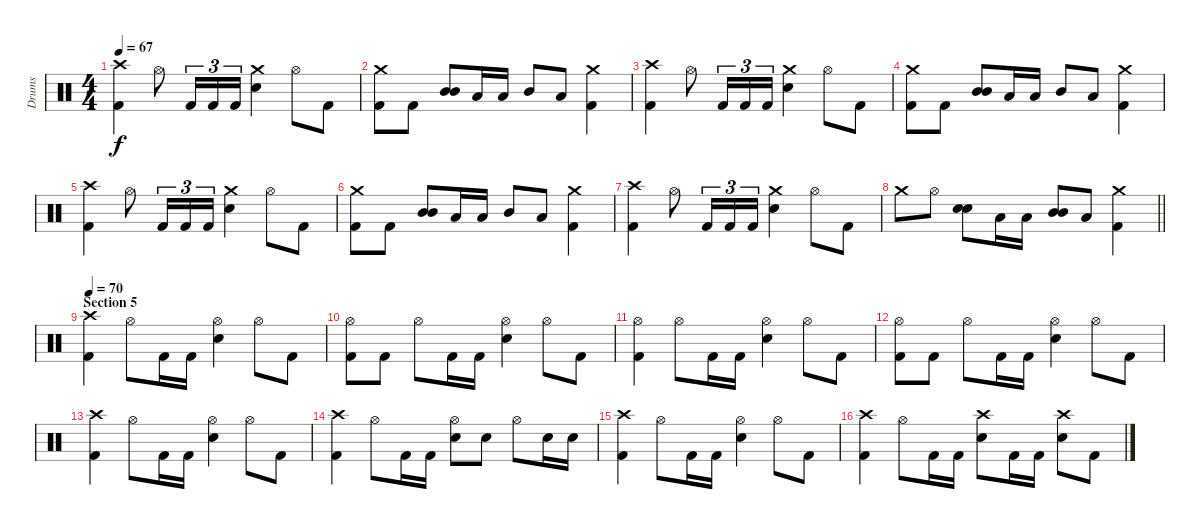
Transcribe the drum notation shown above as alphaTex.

\track ("Drums" "Drums") {instrument percussion}
\staff {score}
\articulation defaults
\ts (4 4)
\tempo 67
\clef neutral
\ks c
("Crash high (hit)" "Kick (hit) 2").4{dy f} "Hi-Hat (open)".8 "Kick (hit) 2".16{tu (3 2)} "Kick (hit) 2".16{tu (3 2)} "Kick (hit) 2".16{tu (3 2)} ("Crash medium (hit)" "Electric Snare (hit)").4 "Hi-Hat (open)".8 "Kick (hit) 2".8 |
("Crash medium (hit)" "Kick (hit) 2").8 "Kick (hit) 2".8 ("Mid Tom (hit)" "Mid Tom (hit)").8{bu 60} "Low Tom (hit)".16 "Low Tom (hit)".16 "Mid Tom (hit)".8 "Low Tom (hit)".8 ("Crash medium (hit)" "Kick (hit) 2").4 |
("Crash high (hit)" "Kick (hit) 2").4 "Hi-Hat (open)".8 "Kick (hit) 2".16{tu (3 2)} "Kick (hit) 2".16{tu (3 2)} "Kick (hit) 2".16{tu (3 2)} ("Crash medium (hit)" "Electric Snare (hit)").4 "Hi-Hat (open)".8 "Kick (hit) 2".8 |
("Crash medium (hit)" "Kick (hit) 2").8 "Kick (hit) 2".8 ("Mid Tom (hit)" "Mid Tom (hit)").8{bu 60} "Low Tom (hit)".16 "Low Tom (hit)".16 "Mid Tom (hit)".8 "Low Tom (hit)".8 ("Crash medium (hit)" "Kick (hit) 2").4 |
("Crash high (hit)" "Kick (hit) 2").4 "Hi-Hat (open)".8 "Kick (hit) 2".16{tu (3 2)} "Kick (hit) 2".16{tu (3 2)} "Kick (hit) 2".16{tu (3 2)} ("Crash medium (hit)" "Electric Snare (hit)").4 "Hi-Hat (open)".8 "Kick (hit) 2".8 |
("Crash medium (hit)" "Kick (hit) 2").8 "Kick (hit) 2".8 ("Mid Tom (hit)" "Mid Tom (hit)").8{bu 60} "Low Tom (hit)".16 "Low Tom (hit)".16 "Mid Tom (hit)".8 "Low Tom (hit)".8 ("Crash medium (hit)" "Kick (hit) 2").4 |
("Crash high (hit)" "Kick (hit) 2").4 "Hi-Hat (open)".8 "Kick (hit) 2".16{tu (3 2)} "Kick (hit) 2".16{tu (3 2)} "Kick (hit) 2".16{tu (3 2)} ("Crash medium (hit)" "Electric Snare (hit)").4 "Hi-Hat (open)".8 "Kick (hit) 2".8 |
\barLineRight lightlight "Crash medium (hit)".8 "Hi-Hat (open)".8
("Electric Snare (hit)" "Electric Snare (hit)").8{bu 60} "Low Tom (hit)".16 "Low Tom (hit)".16 ("Mid Tom (hit)" "Mid Tom (hit)").8{bu 60} "Low Tom (hit)".8 ("Crash medium (hit)" "Kick (hit) 2").4 |
\section ("" "Section 5")
\tempo 70
("Crash high (hit)" "Kick (hit) 2").4 "Hi-Hat (open)".8 "Kick (hit) 2".16 "Kick (hit) 2".16 ("Hi-Hat (open)" "Electric Snare (hit)").4 "Hi-Hat (open)".8 "Kick (hit) 2".8 |
("Hi-Hat (open)" "Kick (hit) 2").8 "Kick (hit) 2".8 "Hi-Hat (open)".8 "Kick (hit) 2".16 "Kick (hit) 2".16 ("Hi-Hat (open)" "Electric Snare (hit)").4 "Hi-Hat (open)".8 "Kick (hit) 2".8 |
("Hi-Hat (open)" "Kick (hit) 2").4 "Hi-Hat (open)".8 "Kick (hit) 2".16 "Kick (hit) 2".16 ("Hi-Hat (open)" "Electric Snare (hit)").4 "Hi-Hat (open)".8 "Kick (hit) 2".8 |
("Hi-Hat (open)" "Kick (hit) 2").8 "Kick (hit) 2".8 "Hi-Hat (open)".8 "Kick (hit) 2".16 "Kick (hit) 2".16 ("Hi-Hat (open)" "Electric Snare (hit)").4 "Hi-Hat (open)".8 "Kick (hit) 2".8 |
("Crash high (hit)" "Kick (hit) 2").4 "Hi-Hat (open)".8 "Kick (hit) 2".16 "Kick (hit) 2".16 ("Hi-Hat (open)" "Electric Snare (hit)").4 "Hi-Hat (open)".8 "Kick (hit) 2".8 |
("Crash high (hit)" "Kick (hit) 2").4 "Hi-Hat (open)".8 "Kick (hit) 2".16 "Kick (hit) 2".16 ("Hi-Hat (open)" "Electric Snare (hit)").8 "Electric Snare (hit)".8 "Hi-Hat (open)".8 "Electric Snare (hit)".16 "Electric Snare (hit)".16 |
("Crash high (hit)" "Kick (hit) 2").4 "Hi-Hat (open)".8 "Kick (hit) 2".16 "Kick (hit) 2".16 ("Hi-Hat (open)" "Electric Snare (hit)").4 "Hi-Hat (open)".8 "Kick (hit) 2".8 |
("Crash high (hit)" "Kick (hit) 2").4 "Hi-Hat (open)".8 "Kick (hit) 2".16 "Kick (hit) 2".16 ("Crash high (hit)" "Electric Snare (hit)").8 "Kick (hit) 2".16 "Kick (hit) 2".16 ("Crash high (hit)" "Electric Snare (hit)").8 "Kick (hit) 2".8
